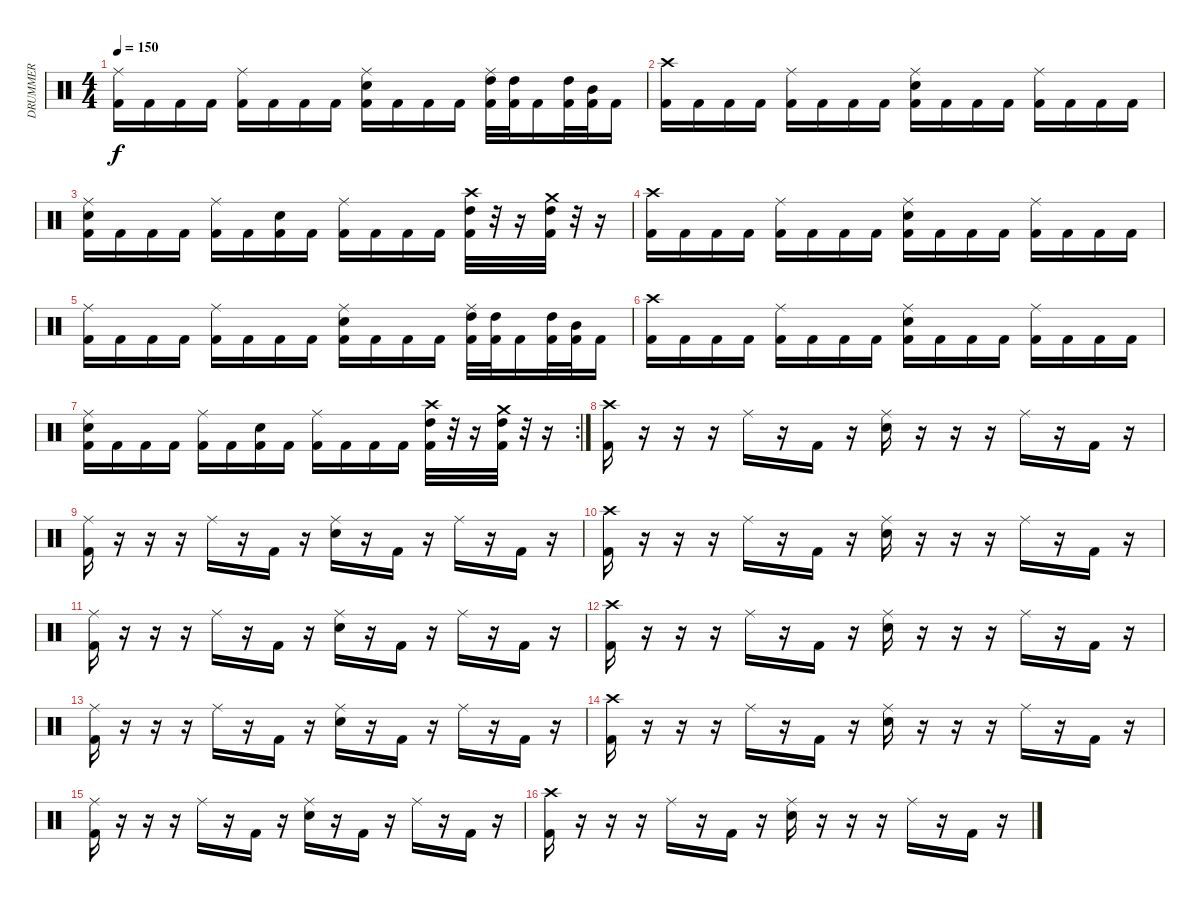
\track ("DRUMMER" "DRUMMER") {instrument percussion}
\staff {score}
\articulation defaults
\ts (4 4)
\tempo 150
\clef neutral
\ks c
("Ride (middle)" "Kick (hit) 2").16{dy f} "Kick (hit) 2".16 "Kick (hit) 2".16 "Kick (hit) 2".16 ("Ride (middle)" "Kick (hit) 2").16 "Kick (hit) 2".16 "Kick (hit) 2".16 "Kick (hit) 2".16 ("Ride (middle)" "Electric Snare (hit)" "Kick (hit) 2").16 "Kick (hit) 2".16 "Kick (hit) 2".16 "Kick (hit) 2".16 ("Ride (middle)" "High Tom (hit)" "Kick (hit) 2").32 ("High Tom (hit)" "Kick (hit) 2").32 "Kick (hit) 2".16 ("High Tom (hit)" "Kick (hit) 2").32 ("Mid Tom (hit)" "Kick (hit) 2").32 "Kick (hit) 2".16 |
("Crash high (hit)" "Kick (hit) 2").16 "Kick (hit) 2".16 "Kick (hit) 2".16 "Kick (hit) 2".16 ("Ride (middle)" "Kick (hit) 2").16 "Kick (hit) 2".16 "Kick (hit) 2".16 "Kick (hit) 2".16 ("Ride (middle)" "Electric Snare (hit)" "Kick (hit) 2").16 "Kick (hit) 2".16 "Kick (hit) 2".16 "Kick (hit) 2".16 ("Ride (middle)" "Kick (hit) 2").16 "Kick (hit) 2".16 "Kick (hit) 2".16 "Kick (hit) 2".16 |
("Ride (middle)" "Electric Snare (hit)" "Kick (hit) 2").16 "Kick (hit) 2".16 "Kick (hit) 2".16 "Kick (hit) 2".16 ("Ride (middle)" "Kick (hit) 2").16 "Kick (hit) 2".16 ("Electric Snare (hit)" "Kick (hit) 2").16 "Kick (hit) 2".16 ("Ride (middle)" "Kick (hit) 2").16 "Kick (hit) 2".16 "Kick (hit) 2".16 "Kick (hit) 2".16 ("Crash high (hit)" "High Tom (hit)" "Kick (hit) 2").32 r.32 r.16 ("Crash medium (hit)" "High Tom (hit)" "Kick (hit) 2").32 r.32 r.16 |
("Crash high (hit)" "Kick (hit) 2").16 "Kick (hit) 2".16 "Kick (hit) 2".16 "Kick (hit) 2".16 ("Ride (middle)" "Kick (hit) 2").16 "Kick (hit) 2".16 "Kick (hit) 2".16 "Kick (hit) 2".16 ("Ride (middle)" "Electric Snare (hit)" "Kick (hit) 2").16 "Kick (hit) 2".16 "Kick (hit) 2".16 "Kick (hit) 2".16 ("Ride (middle)" "Kick (hit) 2").16 "Kick (hit) 2".16 "Kick (hit) 2".16 "Kick (hit) 2".16 |
("Ride (middle)" "Kick (hit) 2").16 "Kick (hit) 2".16 "Kick (hit) 2".16 "Kick (hit) 2".16 ("Ride (middle)" "Kick (hit) 2").16 "Kick (hit) 2".16 "Kick (hit) 2".16 "Kick (hit) 2".16 ("Ride (middle)" "Electric Snare (hit)" "Kick (hit) 2").16 "Kick (hit) 2".16 "Kick (hit) 2".16 "Kick (hit) 2".16 ("Ride (middle)" "High Tom (hit)" "Kick (hit) 2").32 ("High Tom (hit)" "Kick (hit) 2").32 "Kick (hit) 2".16 ("High Tom (hit)" "Kick (hit) 2").32 ("Mid Tom (hit)" "Kick (hit) 2").32 "Kick (hit) 2".16 |
("Crash high (hit)" "Kick (hit) 2").16 "Kick (hit) 2".16 "Kick (hit) 2".16 "Kick (hit) 2".16 ("Ride (middle)" "Kick (hit) 2").16 "Kick (hit) 2".16 "Kick (hit) 2".16 "Kick (hit) 2".16 ("Ride (middle)" "Electric Snare (hit)" "Kick (hit) 2").16 "Kick (hit) 2".16 "Kick (hit) 2".16 "Kick (hit) 2".16 ("Ride (middle)" "Kick (hit) 2").16 "Kick (hit) 2".16 "Kick (hit) 2".16 "Kick (hit) 2".16 |
\rc 2
("Ride (middle)" "Electric Snare (hit)" "Kick (hit) 2").16 "Kick (hit) 2".16 "Kick (hit) 2".16 "Kick (hit) 2".16 ("Ride (middle)" "Kick (hit) 2").16 "Kick (hit) 2".16 ("Electric Snare (hit)" "Kick (hit) 2").16 "Kick (hit) 2".16 ("Ride (middle)" "Kick (hit) 2").16 "Kick (hit) 2".16 "Kick (hit) 2".16 "Kick (hit) 2".16 ("Crash high (hit)" "High Tom (hit)" "Kick (hit) 2").32 r.32 r.16 ("Crash medium (hit)" "High Tom (hit)" "Kick (hit) 2").32 r.32 r.16 |
("Crash high (hit)" "Kick (hit) 2").16 r.16 r.16 r.16 "Ride (middle)".16 r.16 "Kick (hit) 2".16 r.16 ("Ride (middle)" "Electric Snare (hit)").16 r.16 r.16 r.16 "Ride (middle)".16 r.16 "Kick (hit) 2".16 r.16 |
("Ride (middle)" "Kick (hit) 2").16 r.16 r.16 r.16 "Ride (middle)".16 r.16 "Kick (hit) 2".16 r.16 ("Ride (middle)" "Electric Snare (hit)").16 r.16 "Kick (hit) 2".16 r.16 "Ride (middle)".16 r.16 "Kick (hit) 2".16 r.16 |
("Crash high (hit)" "Kick (hit) 2").16 r.16 r.16 r.16 "Ride (middle)".16 r.16 "Kick (hit) 2".16 r.16 ("Ride (middle)" "Electric Snare (hit)").16 r.16 r.16 r.16 "Ride (middle)".16 r.16 "Kick (hit) 2".16 r.16 |
("Ride (middle)" "Kick (hit) 2").16 r.16 r.16 r.16 "Ride (middle)".16 r.16 "Kick (hit) 2".16 r.16 ("Ride (middle)" "Electric Snare (hit)").16 r.16 "Kick (hit) 2".16 r.16 "Ride (middle)".16 r.16 "Kick (hit) 2".16 r.16 |
("Crash high (hit)" "Kick (hit) 2").16 r.16 r.16 r.16 "Ride (middle)".16 r.16 "Kick (hit) 2".16 r.16 ("Ride (middle)" "Electric Snare (hit)").16 r.16 r.16 r.16 "Ride (middle)".16 r.16 "Kick (hit) 2".16 r.16 |
("Ride (middle)" "Kick (hit) 2").16 r.16 r.16 r.16 "Ride (middle)".16 r.16 "Kick (hit) 2".16 r.16 ("Ride (middle)" "Electric Snare (hit)").16 r.16 "Kick (hit) 2".16 r.16 "Ride (middle)".16 r.16 "Kick (hit) 2".16 r.16 |
("Crash high (hit)" "Kick (hit) 2").16 r.16 r.16 r.16 "Ride (middle)".16 r.16 "Kick (hit) 2".16 r.16 ("Ride (middle)" "Electric Snare (hit)").16 r.16 r.16 r.16 "Ride (middle)".16 r.16 "Kick (hit) 2".16 r.16 |
("Ride (middle)" "Kick (hit) 2").16 r.16 r.16 r.16 "Ride (middle)".16 r.16 "Kick (hit) 2".16 r.16 ("Ride (middle)" "Electric Snare (hit)").16 r.16 "Kick (hit) 2".16 r.16 "Ride (middle)".16 r.16 "Kick (hit) 2".16 r.16 |
("Crash high (hit)" "Kick (hit) 2").16 r.16 r.16 r.16 "Ride (middle)".16 r.16 "Kick (hit) 2".16 r.16 ("Ride (middle)" "Electric Snare (hit)").16 r.16 r.16 r.16 "Ride (middle)".16 r.16 "Kick (hit) 2".16 r.16
